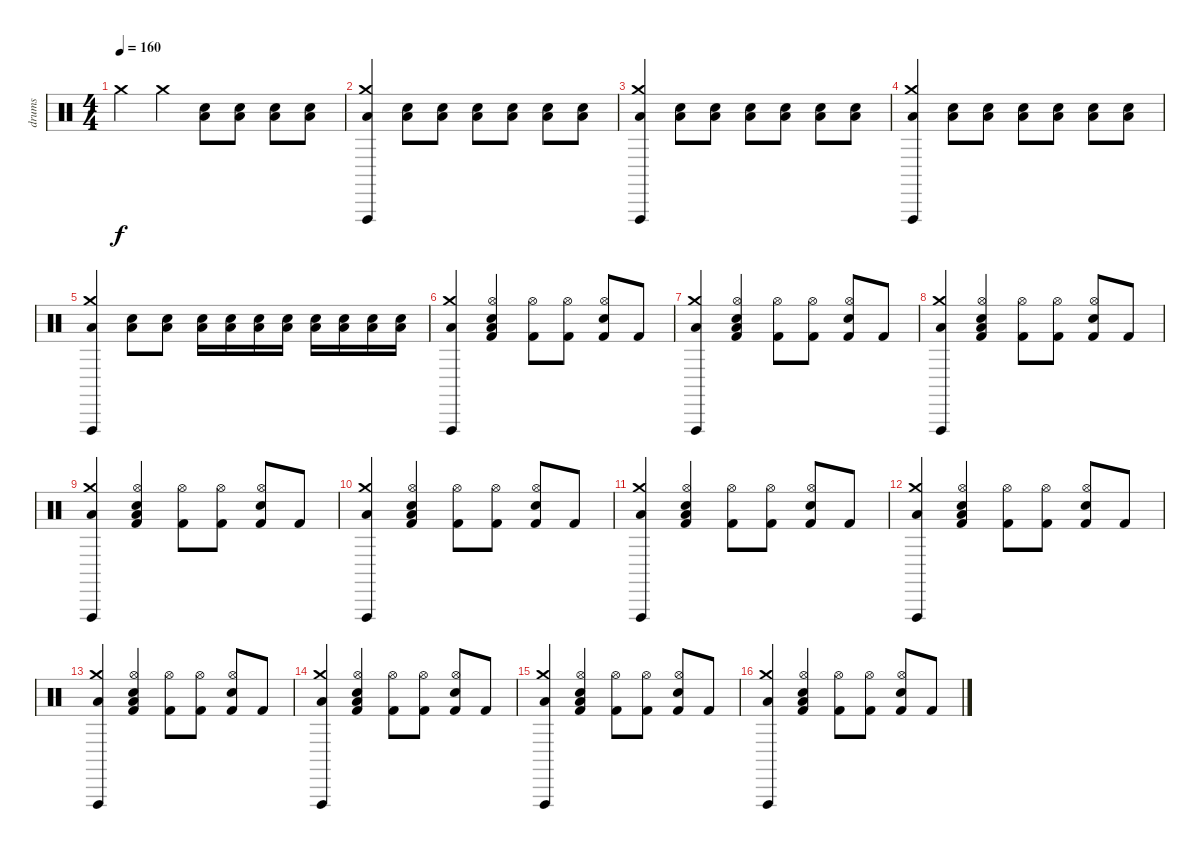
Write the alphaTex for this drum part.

\track ("drums" "drums") {instrument percussion}
\staff {score}
\articulation defaults
\ts (4 4)
\tempo 160
\clef neutral
\ks c "Crash medium (hit)".4{dy f} "Crash medium (hit)".4
("Electric Snare (hit)" "Low Floor Tom (hit)").8 ("Electric Snare (hit)" "Low Floor Tom (hit)").8 ("Electric Snare (hit)" "Low Floor Tom (hit)").8 ("Electric Snare (hit)" "Low Floor Tom (hit)").8 |
("Crash medium (hit)" "Vibraslap (hit)" "Low Floor Tom (hit)").4 ("Electric Snare (hit)" "Low Floor Tom (hit)").8 ("Electric Snare (hit)" "Low Floor Tom (hit)").8 ("Electric Snare (hit)" "Low Floor Tom (hit)").8 ("Electric Snare (hit)" "Low Floor Tom (hit)").8 ("Electric Snare (hit)" "Low Floor Tom (hit)").8 ("Electric Snare (hit)" "Low Floor Tom (hit)").8 |
("Crash medium (hit)" "Vibraslap (hit)" "Low Floor Tom (hit)").4 ("Electric Snare (hit)" "Low Floor Tom (hit)").8 ("Electric Snare (hit)" "Low Floor Tom (hit)").8 ("Electric Snare (hit)" "Low Floor Tom (hit)").8 ("Electric Snare (hit)" "Low Floor Tom (hit)").8 ("Electric Snare (hit)" "Low Floor Tom (hit)").8 ("Electric Snare (hit)" "Low Floor Tom (hit)").8 |
("Crash medium (hit)" "Vibraslap (hit)" "Low Floor Tom (hit)").4 ("Electric Snare (hit)" "Low Floor Tom (hit)").8 ("Electric Snare (hit)" "Low Floor Tom (hit)").8 ("Electric Snare (hit)" "Low Floor Tom (hit)").8 ("Electric Snare (hit)" "Low Floor Tom (hit)").8 ("Electric Snare (hit)" "Low Floor Tom (hit)").8 ("Electric Snare (hit)" "Low Floor Tom (hit)").8 |
("Crash medium (hit)" "Vibraslap (hit)" "Low Floor Tom (hit)").4 ("Electric Snare (hit)" "Low Floor Tom (hit)").8 ("Electric Snare (hit)" "Low Floor Tom (hit)").8 ("Electric Snare (hit)" "Low Floor Tom (hit)").16 ("Electric Snare (hit)" "Low Floor Tom (hit)").16 ("Electric Snare (hit)" "Low Floor Tom (hit)").16 ("Electric Snare (hit)" "Low Floor Tom (hit)").16 ("Electric Snare (hit)" "Low Floor Tom (hit)").16 ("Electric Snare (hit)" "Low Floor Tom (hit)").16 ("Electric Snare (hit)" "Low Floor Tom (hit)").16 ("Electric Snare (hit)" "Low Floor Tom (hit)").16 |
("Crash medium (hit)" "Vibraslap (hit)" "Low Floor Tom (hit)").4 ("Hi-Hat (open)" "Electric Snare (hit)" "Low Floor Tom (hit)" "Kick (hit) 2").4 ("Hi-Hat (open)" "Kick (hit) 2").8 ("Hi-Hat (open)" "Kick (hit) 2").8 ("Hi-Hat (open)" "Electric Snare (hit)" "Kick (hit) 2").8 "Kick (hit) 2".8 |
("Crash medium (hit)" "Vibraslap (hit)" "Low Floor Tom (hit)").4 ("Hi-Hat (open)" "Electric Snare (hit)" "Low Floor Tom (hit)" "Kick (hit) 2").4 ("Hi-Hat (open)" "Kick (hit) 2").8 ("Hi-Hat (open)" "Kick (hit) 2").8 ("Hi-Hat (open)" "Electric Snare (hit)" "Kick (hit) 2").8 "Kick (hit) 2".8 |
("Crash medium (hit)" "Vibraslap (hit)" "Low Floor Tom (hit)").4 ("Hi-Hat (open)" "Electric Snare (hit)" "Low Floor Tom (hit)" "Kick (hit) 2").4 ("Hi-Hat (open)" "Kick (hit) 2").8 ("Hi-Hat (open)" "Kick (hit) 2").8 ("Hi-Hat (open)" "Electric Snare (hit)" "Kick (hit) 2").8 "Kick (hit) 2".8 |
("Crash medium (hit)" "Vibraslap (hit)" "Low Floor Tom (hit)").4 ("Hi-Hat (open)" "Electric Snare (hit)" "Low Floor Tom (hit)" "Kick (hit) 2").4 ("Hi-Hat (open)" "Kick (hit) 2").8 ("Hi-Hat (open)" "Kick (hit) 2").8 ("Hi-Hat (open)" "Electric Snare (hit)" "Kick (hit) 2").8 "Kick (hit) 2".8 |
("Crash medium (hit)" "Vibraslap (hit)" "Low Floor Tom (hit)").4 ("Hi-Hat (open)" "Electric Snare (hit)" "Low Floor Tom (hit)" "Kick (hit) 2").4 ("Hi-Hat (open)" "Kick (hit) 2").8 ("Hi-Hat (open)" "Kick (hit) 2").8 ("Hi-Hat (open)" "Electric Snare (hit)" "Kick (hit) 2").8 "Kick (hit) 2".8 |
("Crash medium (hit)" "Vibraslap (hit)" "Low Floor Tom (hit)").4 ("Hi-Hat (open)" "Electric Snare (hit)" "Low Floor Tom (hit)" "Kick (hit) 2").4 ("Hi-Hat (open)" "Kick (hit) 2").8 ("Hi-Hat (open)" "Kick (hit) 2").8 ("Hi-Hat (open)" "Electric Snare (hit)" "Kick (hit) 2").8 "Kick (hit) 2".8 |
("Crash medium (hit)" "Vibraslap (hit)" "Low Floor Tom (hit)").4 ("Hi-Hat (open)" "Electric Snare (hit)" "Low Floor Tom (hit)" "Kick (hit) 2").4 ("Hi-Hat (open)" "Kick (hit) 2").8 ("Hi-Hat (open)" "Kick (hit) 2").8 ("Hi-Hat (open)" "Electric Snare (hit)" "Kick (hit) 2").8 "Kick (hit) 2".8 |
("Crash medium (hit)" "Vibraslap (hit)" "Low Floor Tom (hit)").4 ("Hi-Hat (open)" "Electric Snare (hit)" "Low Floor Tom (hit)" "Kick (hit) 2").4 ("Hi-Hat (open)" "Kick (hit) 2").8 ("Hi-Hat (open)" "Kick (hit) 2").8 ("Hi-Hat (open)" "Electric Snare (hit)" "Kick (hit) 2").8 "Kick (hit) 2".8 |
("Crash medium (hit)" "Vibraslap (hit)" "Low Floor Tom (hit)").4 ("Hi-Hat (open)" "Electric Snare (hit)" "Low Floor Tom (hit)" "Kick (hit) 2").4 ("Hi-Hat (open)" "Kick (hit) 2").8 ("Hi-Hat (open)" "Kick (hit) 2").8 ("Hi-Hat (open)" "Electric Snare (hit)" "Kick (hit) 2").8 "Kick (hit) 2".8 |
("Crash medium (hit)" "Vibraslap (hit)" "Low Floor Tom (hit)").4 ("Hi-Hat (open)" "Electric Snare (hit)" "Low Floor Tom (hit)" "Kick (hit) 2").4 ("Hi-Hat (open)" "Kick (hit) 2").8 ("Hi-Hat (open)" "Kick (hit) 2").8 ("Hi-Hat (open)" "Electric Snare (hit)" "Kick (hit) 2").8 "Kick (hit) 2".8 |
("Crash medium (hit)" "Vibraslap (hit)" "Low Floor Tom (hit)").4 ("Hi-Hat (open)" "Electric Snare (hit)" "Low Floor Tom (hit)" "Kick (hit) 2").4 ("Hi-Hat (open)" "Kick (hit) 2").8 ("Hi-Hat (open)" "Kick (hit) 2").8 ("Hi-Hat (open)" "Electric Snare (hit)" "Kick (hit) 2").8 "Kick (hit) 2".8
